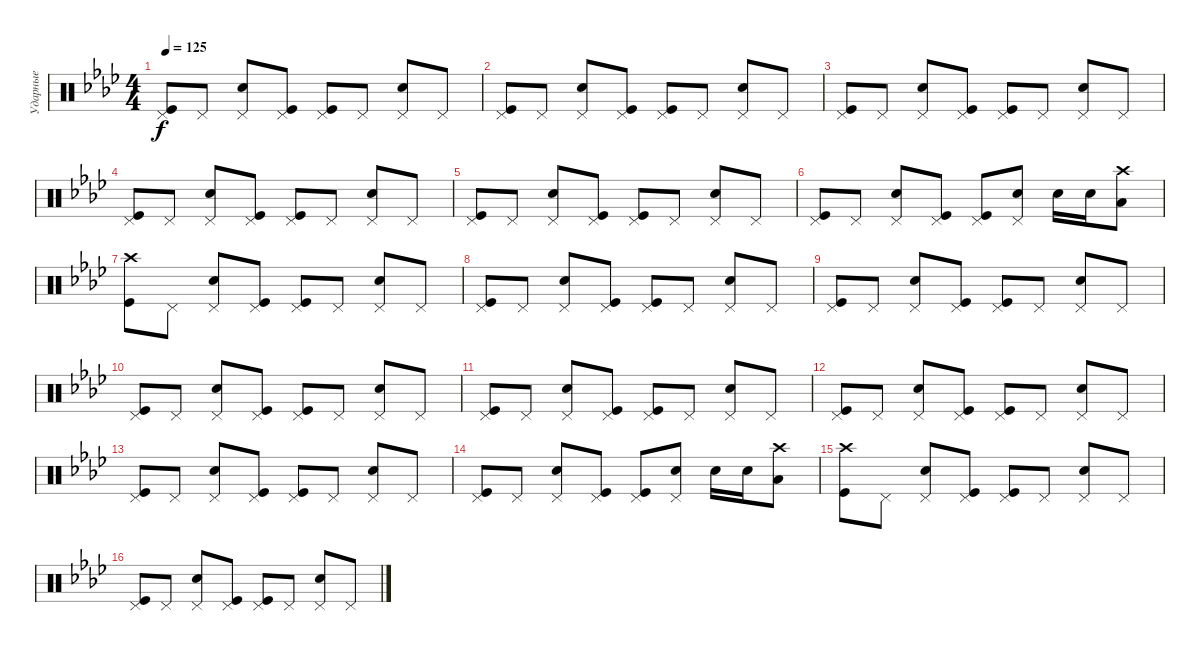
\track ("Ударные" "Ударные") {solo instrument percussion}
\staff {score}
\articulation defaults
\ts (4 4)
\tempo 125
\clef neutral
\ks fminor
("Pedal Hi-Hat (hit)" "Kick (hit)").8{dy f} "Pedal Hi-Hat (hit)".8 ("Pedal Hi-Hat (hit)" "Electric Snare (hit)").8 ("Pedal Hi-Hat (hit)" "Kick (hit)").8 ("Pedal Hi-Hat (hit)" "Kick (hit)").8 "Pedal Hi-Hat (hit)".8 ("Pedal Hi-Hat (hit)" "Electric Snare (hit)").8 "Pedal Hi-Hat (hit)".8 |
("Pedal Hi-Hat (hit)" "Kick (hit)").8 "Pedal Hi-Hat (hit)".8 ("Pedal Hi-Hat (hit)" "Electric Snare (hit)").8 ("Pedal Hi-Hat (hit)" "Kick (hit)").8 ("Pedal Hi-Hat (hit)" "Kick (hit)").8 "Pedal Hi-Hat (hit)".8 ("Pedal Hi-Hat (hit)" "Electric Snare (hit)").8 "Pedal Hi-Hat (hit)".8 |
("Pedal Hi-Hat (hit)" "Kick (hit)").8 "Pedal Hi-Hat (hit)".8 ("Pedal Hi-Hat (hit)" "Electric Snare (hit)").8 ("Pedal Hi-Hat (hit)" "Kick (hit)").8 ("Pedal Hi-Hat (hit)" "Kick (hit)").8 "Pedal Hi-Hat (hit)".8 ("Pedal Hi-Hat (hit)" "Electric Snare (hit)").8 "Pedal Hi-Hat (hit)".8 |
("Pedal Hi-Hat (hit)" "Kick (hit)").8 "Pedal Hi-Hat (hit)".8 ("Pedal Hi-Hat (hit)" "Electric Snare (hit)").8 ("Pedal Hi-Hat (hit)" "Kick (hit)").8 ("Pedal Hi-Hat (hit)" "Kick (hit)").8 "Pedal Hi-Hat (hit)".8 ("Pedal Hi-Hat (hit)" "Electric Snare (hit)").8 "Pedal Hi-Hat (hit)".8 |
("Pedal Hi-Hat (hit)" "Kick (hit)").8 "Pedal Hi-Hat (hit)".8 ("Pedal Hi-Hat (hit)" "Electric Snare (hit)").8 ("Pedal Hi-Hat (hit)" "Kick (hit)").8 ("Pedal Hi-Hat (hit)" "Kick (hit)").8 "Pedal Hi-Hat (hit)".8 ("Pedal Hi-Hat (hit)" "Electric Snare (hit)").8 "Pedal Hi-Hat (hit)".8 |
("Pedal Hi-Hat (hit)" "Kick (hit)").8 "Pedal Hi-Hat (hit)".8 ("Pedal Hi-Hat (hit)" "Electric Snare (hit)").8 ("Pedal Hi-Hat (hit)" "Kick (hit)").8 ("Pedal Hi-Hat (hit)" "Kick (hit)").8 ("Pedal Hi-Hat (hit)" "Electric Snare (hit)").8 "Electric Snare (hit)".16 "Electric Snare (hit)".16 ("Crash high (hit)" "Low Floor Tom (hit)").8 |
("Crash high (hit)" "Kick (hit)").8 "Pedal Hi-Hat (hit)".8 ("Pedal Hi-Hat (hit)" "Electric Snare (hit)").8 ("Pedal Hi-Hat (hit)" "Kick (hit)").8 ("Pedal Hi-Hat (hit)" "Kick (hit)").8 "Pedal Hi-Hat (hit)".8 ("Pedal Hi-Hat (hit)" "Electric Snare (hit)").8 "Pedal Hi-Hat (hit)".8 |
("Pedal Hi-Hat (hit)" "Kick (hit)").8 "Pedal Hi-Hat (hit)".8 ("Pedal Hi-Hat (hit)" "Electric Snare (hit)").8 ("Pedal Hi-Hat (hit)" "Kick (hit)").8 ("Pedal Hi-Hat (hit)" "Kick (hit)").8 "Pedal Hi-Hat (hit)".8 ("Pedal Hi-Hat (hit)" "Electric Snare (hit)").8 "Pedal Hi-Hat (hit)".8 |
("Pedal Hi-Hat (hit)" "Kick (hit)").8 "Pedal Hi-Hat (hit)".8 ("Pedal Hi-Hat (hit)" "Electric Snare (hit)").8 ("Pedal Hi-Hat (hit)" "Kick (hit)").8 ("Pedal Hi-Hat (hit)" "Kick (hit)").8 "Pedal Hi-Hat (hit)".8 ("Pedal Hi-Hat (hit)" "Electric Snare (hit)").8 "Pedal Hi-Hat (hit)".8 |
("Pedal Hi-Hat (hit)" "Kick (hit)").8 "Pedal Hi-Hat (hit)".8 ("Pedal Hi-Hat (hit)" "Electric Snare (hit)").8 ("Pedal Hi-Hat (hit)" "Kick (hit)").8 ("Pedal Hi-Hat (hit)" "Kick (hit)").8 "Pedal Hi-Hat (hit)".8 ("Pedal Hi-Hat (hit)" "Electric Snare (hit)").8 "Pedal Hi-Hat (hit)".8 |
("Pedal Hi-Hat (hit)" "Kick (hit)").8 "Pedal Hi-Hat (hit)".8 ("Pedal Hi-Hat (hit)" "Electric Snare (hit)").8 ("Pedal Hi-Hat (hit)" "Kick (hit)").8 ("Pedal Hi-Hat (hit)" "Kick (hit)").8 "Pedal Hi-Hat (hit)".8 ("Pedal Hi-Hat (hit)" "Electric Snare (hit)").8 "Pedal Hi-Hat (hit)".8 |
("Pedal Hi-Hat (hit)" "Kick (hit)").8 "Pedal Hi-Hat (hit)".8 ("Pedal Hi-Hat (hit)" "Electric Snare (hit)").8 ("Pedal Hi-Hat (hit)" "Kick (hit)").8 ("Pedal Hi-Hat (hit)" "Kick (hit)").8 "Pedal Hi-Hat (hit)".8 ("Pedal Hi-Hat (hit)" "Electric Snare (hit)").8 "Pedal Hi-Hat (hit)".8 |
("Pedal Hi-Hat (hit)" "Kick (hit)").8 "Pedal Hi-Hat (hit)".8 ("Pedal Hi-Hat (hit)" "Electric Snare (hit)").8 ("Pedal Hi-Hat (hit)" "Kick (hit)").8 ("Pedal Hi-Hat (hit)" "Kick (hit)").8 "Pedal Hi-Hat (hit)".8 ("Pedal Hi-Hat (hit)" "Electric Snare (hit)").8 "Pedal Hi-Hat (hit)".8 |
("Pedal Hi-Hat (hit)" "Kick (hit)").8 "Pedal Hi-Hat (hit)".8 ("Pedal Hi-Hat (hit)" "Electric Snare (hit)").8 ("Pedal Hi-Hat (hit)" "Kick (hit)").8 ("Pedal Hi-Hat (hit)" "Kick (hit)").8 ("Pedal Hi-Hat (hit)" "Electric Snare (hit)").8 "Electric Snare (hit)".16 "Electric Snare (hit)".16 ("Crash high (hit)" "Low Floor Tom (hit)").8 |
("Crash high (hit)" "Kick (hit)").8 "Pedal Hi-Hat (hit)".8 ("Pedal Hi-Hat (hit)" "Electric Snare (hit)").8 ("Pedal Hi-Hat (hit)" "Kick (hit)").8 ("Pedal Hi-Hat (hit)" "Kick (hit)").8 "Pedal Hi-Hat (hit)".8 ("Pedal Hi-Hat (hit)" "Electric Snare (hit)").8 "Pedal Hi-Hat (hit)".8 |
("Pedal Hi-Hat (hit)" "Kick (hit)").8 "Pedal Hi-Hat (hit)".8 ("Pedal Hi-Hat (hit)" "Electric Snare (hit)").8 ("Pedal Hi-Hat (hit)" "Kick (hit)").8 ("Pedal Hi-Hat (hit)" "Kick (hit)").8 "Pedal Hi-Hat (hit)".8 ("Pedal Hi-Hat (hit)" "Electric Snare (hit)").8 "Pedal Hi-Hat (hit)".8
